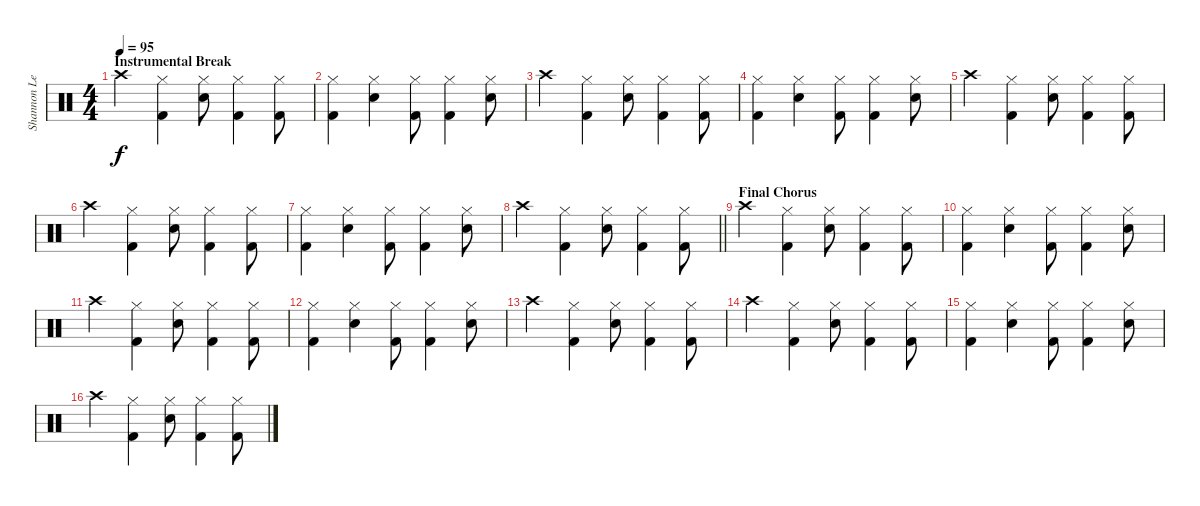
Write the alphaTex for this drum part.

\track ("Shannon Leto (Percussion)" "Shannon Le") {instrument percussion}
\staff {score}
\articulation defaults
\ts (4 4)
\section ("" "Instrumental Break")
\tempo 95
\clef neutral
\ks c "Crash high (hit)".4{dy f}
("Hi-Hat (closed)" "Kick (hit) 2").4 ("Hi-Hat (closed)" "Snare (hit) 2").8 ("Hi-Hat (closed)" "Kick (hit) 2").4 ("Hi-Hat (closed)" "Kick (hit) 2").8 |
("Hi-Hat (closed)" "Kick (hit) 2").4 ("Hi-Hat (closed)" "Snare (hit) 2").4 ("Hi-Hat (closed)" "Kick (hit) 2").8 ("Hi-Hat (closed)" "Kick (hit) 2").4 ("Hi-Hat (closed)" "Snare (hit) 2").8 |
"Crash high (hit)".4 ("Hi-Hat (closed)" "Kick (hit) 2").4 ("Hi-Hat (closed)" "Snare (hit) 2").8 ("Hi-Hat (closed)" "Kick (hit) 2").4 ("Hi-Hat (closed)" "Kick (hit) 2").8 |
("Hi-Hat (closed)" "Kick (hit) 2").4 ("Hi-Hat (closed)" "Snare (hit) 2").4 ("Hi-Hat (closed)" "Kick (hit) 2").8 ("Hi-Hat (closed)" "Kick (hit) 2").4 ("Hi-Hat (closed)" "Snare (hit) 2").8 |
"Crash high (hit)".4 ("Hi-Hat (closed)" "Kick (hit) 2").4 ("Hi-Hat (closed)" "Snare (hit) 2").8 ("Hi-Hat (closed)" "Kick (hit) 2").4 ("Hi-Hat (closed)" "Kick (hit) 2").8 |
"Crash high (hit)".4 ("Hi-Hat (closed)" "Kick (hit) 2").4 ("Hi-Hat (closed)" "Snare (hit) 2").8 ("Hi-Hat (closed)" "Kick (hit) 2").4 ("Hi-Hat (closed)" "Kick (hit) 2").8 |
("Hi-Hat (closed)" "Kick (hit) 2").4 ("Hi-Hat (closed)" "Snare (hit) 2").4 ("Hi-Hat (closed)" "Kick (hit) 2").8 ("Hi-Hat (closed)" "Kick (hit) 2").4 ("Hi-Hat (closed)" "Snare (hit) 2").8 |
\barLineRight lightlight "Crash high (hit)".4
("Hi-Hat (closed)" "Kick (hit) 2").4 ("Hi-Hat (closed)" "Snare (hit) 2").8 ("Hi-Hat (closed)" "Kick (hit) 2").4 ("Hi-Hat (closed)" "Kick (hit) 2").8 |
\section ("" "Final Chorus")
"Crash high (hit)".4 ("Hi-Hat (closed)" "Kick (hit) 2").4 ("Hi-Hat (closed)" "Snare (hit) 2").8 ("Hi-Hat (closed)" "Kick (hit) 2").4 ("Hi-Hat (closed)" "Kick (hit) 2").8 |
("Hi-Hat (closed)" "Kick (hit) 2").4 ("Hi-Hat (closed)" "Snare (hit) 2").4 ("Hi-Hat (closed)" "Kick (hit) 2").8 ("Hi-Hat (closed)" "Kick (hit) 2").4 ("Hi-Hat (closed)" "Snare (hit) 2").8 |
"Crash high (hit)".4 ("Hi-Hat (closed)" "Kick (hit) 2").4 ("Hi-Hat (closed)" "Snare (hit) 2").8 ("Hi-Hat (closed)" "Kick (hit) 2").4 ("Hi-Hat (closed)" "Kick (hit) 2").8 |
("Hi-Hat (closed)" "Kick (hit) 2").4 ("Hi-Hat (closed)" "Snare (hit) 2").4 ("Hi-Hat (closed)" "Kick (hit) 2").8 ("Hi-Hat (closed)" "Kick (hit) 2").4 ("Hi-Hat (closed)" "Snare (hit) 2").8 |
"Crash high (hit)".4 ("Hi-Hat (closed)" "Kick (hit) 2").4 ("Hi-Hat (closed)" "Snare (hit) 2").8 ("Hi-Hat (closed)" "Kick (hit) 2").4 ("Hi-Hat (closed)" "Kick (hit) 2").8 |
"Crash high (hit)".4 ("Hi-Hat (closed)" "Kick (hit) 2").4 ("Hi-Hat (closed)" "Snare (hit) 2").8 ("Hi-Hat (closed)" "Kick (hit) 2").4 ("Hi-Hat (closed)" "Kick (hit) 2").8 |
("Hi-Hat (closed)" "Kick (hit) 2").4 ("Hi-Hat (closed)" "Snare (hit) 2").4 ("Hi-Hat (closed)" "Kick (hit) 2").8 ("Hi-Hat (closed)" "Kick (hit) 2").4 ("Hi-Hat (closed)" "Snare (hit) 2").8 |
"Crash high (hit)".4 ("Hi-Hat (closed)" "Kick (hit) 2").4 ("Hi-Hat (closed)" "Snare (hit) 2").8 ("Hi-Hat (closed)" "Kick (hit) 2").4 ("Hi-Hat (closed)" "Kick (hit) 2").8
